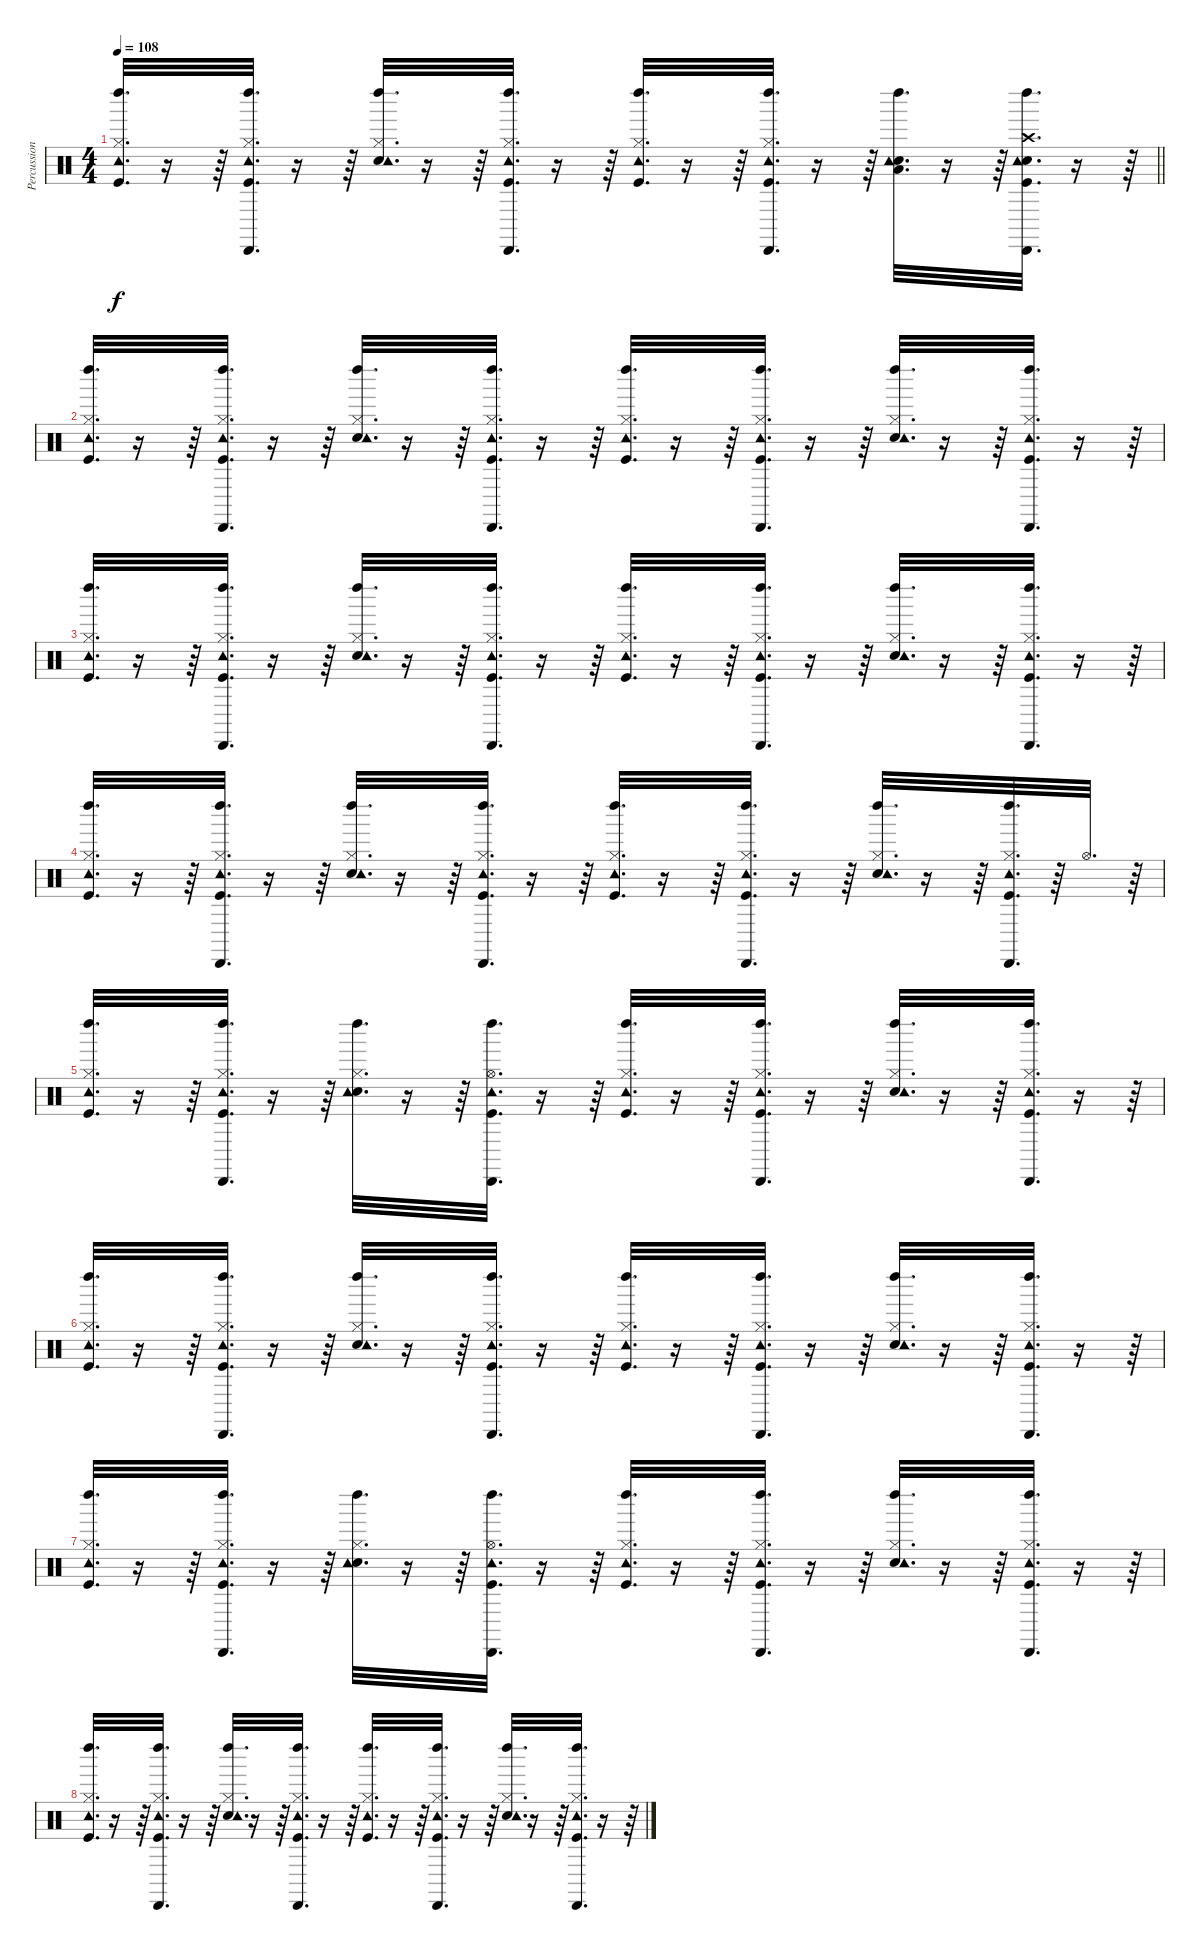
\track ("Percussions" "Percussion") {instrument percussion}
\staff {score}
\articulation defaults
\ts (4 4)
\tempo 108
\clef neutral
\barLineRight lightlight
\ks c
("Left Maraca (hit)" "Kick (hit)" "Hi-Hat (closed)" "Tambourine (hit)").32{d dy f} r.16 r.64 ("Cabasa (hit)" "Tambourine (hit)" "Kick (hit)" "Hi-Hat (closed)" "Left Maraca (hit)").32{d} r.16 r.64 ("Left Maraca (hit)" "Snare (hit) 2" "Hi-Hat (closed)" "Tambourine (hit)").32{d} r.16 r.64 ("Cabasa (hit)" "Tambourine (hit)" "Kick (hit)" "Hi-Hat (closed)" "Left Maraca (hit)").32{d} r.16 r.64 ("Left Maraca (hit)" "Kick (hit)" "Hi-Hat (closed)" "Tambourine (hit)").32{d} r.16 r.64 ("Cabasa (hit)" "Tambourine (hit)" "Kick (hit)" "Hi-Hat (closed)" "Left Maraca (hit)").32{d} r.16 r.64 ("Left Maraca (hit)" "Snare (hit) 2" "Low Floor Tom (hit)" "Tambourine (hit)").32{d} r.16 r.64 ("Cabasa (hit)" "Snare (hit) 2" "Crash high (hit)" "Kick (hit)" "Left Maraca (hit)" "Tambourine (hit)").32{d} r.16 r.64 |
("Left Maraca (hit)" "Kick (hit)" "Hi-Hat (closed)" "Tambourine (hit)").32{d} r.16 r.64 ("Cabasa (hit)" "Tambourine (hit)" "Kick (hit)" "Hi-Hat (closed)" "Left Maraca (hit)").32{d} r.16 r.64 ("Left Maraca (hit)" "Snare (hit) 2" "Hi-Hat (closed)" "Tambourine (hit)").32{d} r.16 r.64 ("Cabasa (hit)" "Tambourine (hit)" "Kick (hit)" "Hi-Hat (closed)" "Left Maraca (hit)").32{d} r.16 r.64 ("Left Maraca (hit)" "Kick (hit)" "Hi-Hat (closed)" "Tambourine (hit)").32{d} r.16 r.64 ("Cabasa (hit)" "Tambourine (hit)" "Kick (hit)" "Hi-Hat (closed)" "Left Maraca (hit)").32{d} r.16 r.64 ("Left Maraca (hit)" "Snare (hit) 2" "Hi-Hat (closed)" "Tambourine (hit)").32{d} r.16 r.64 ("Cabasa (hit)" "Tambourine (hit)" "Kick (hit)" "Hi-Hat (closed)" "Left Maraca (hit)").32{d} r.16 r.64 |
("Left Maraca (hit)" "Kick (hit)" "Hi-Hat (closed)" "Tambourine (hit)").32{d} r.16 r.64 ("Cabasa (hit)" "Tambourine (hit)" "Kick (hit)" "Hi-Hat (closed)" "Left Maraca (hit)").32{d} r.16 r.64 ("Left Maraca (hit)" "Snare (hit) 2" "Hi-Hat (closed)" "Tambourine (hit)").32{d} r.16 r.64 ("Cabasa (hit)" "Tambourine (hit)" "Kick (hit)" "Hi-Hat (closed)" "Left Maraca (hit)").32{d} r.16 r.64 ("Left Maraca (hit)" "Kick (hit)" "Hi-Hat (closed)" "Tambourine (hit)").32{d} r.16 r.64 ("Cabasa (hit)" "Tambourine (hit)" "Kick (hit)" "Hi-Hat (closed)" "Left Maraca (hit)").32{d} r.16 r.64 ("Left Maraca (hit)" "Snare (hit) 2" "Hi-Hat (closed)" "Tambourine (hit)").32{d} r.16 r.64 ("Cabasa (hit)" "Tambourine (hit)" "Kick (hit)" "Hi-Hat (closed)" "Left Maraca (hit)").32{d} r.16 r.64 |
("Left Maraca (hit)" "Kick (hit)" "Hi-Hat (closed)" "Tambourine (hit)").32{d} r.16 r.64 ("Cabasa (hit)" "Tambourine (hit)" "Kick (hit)" "Hi-Hat (closed)" "Left Maraca (hit)").32{d} r.16 r.64 ("Left Maraca (hit)" "Snare (hit) 2" "Hi-Hat (closed)" "Tambourine (hit)").32{d} r.16 r.64 ("Cabasa (hit)" "Tambourine (hit)" "Kick (hit)" "Hi-Hat (closed)" "Left Maraca (hit)").32{d} r.16 r.64 ("Left Maraca (hit)" "Kick (hit)" "Hi-Hat (closed)" "Tambourine (hit)").32{d} r.16 r.64 ("Cabasa (hit)" "Tambourine (hit)" "Kick (hit)" "Hi-Hat (closed)" "Left Maraca (hit)").32{d} r.16 r.64 ("Left Maraca (hit)" "Snare (hit) 2" "Hi-Hat (closed)" "Tambourine (hit)").32{d} r.16 r.64 ("Cabasa (hit)" "Tambourine (hit)" "Kick (hit)" "Hi-Hat (closed)" "Left Maraca (hit)").32{d} r.64 "Hi-Hat (open)".32{d} r.64 |
("Left Maraca (hit)" "Kick (hit)" "Hi-Hat (closed)" "Tambourine (hit)").32{d} r.16 r.64 ("Cabasa (hit)" "Tambourine (hit)" "Kick (hit)" "Hi-Hat (closed)" "Left Maraca (hit)").32{d} r.16 r.64 ("Left Maraca (hit)" "Snare (hit) 2" "Hi-Hat (closed)" "Tambourine (hit)").32{d} r.16 r.64 ("Cabasa (hit)" "Tambourine (hit)" "Kick (hit)" "Hi-Hat (open)" "Left Maraca (hit)").32{d} r.16 r.64 ("Left Maraca (hit)" "Kick (hit)" "Hi-Hat (closed)" "Tambourine (hit)").32{d} r.16 r.64 ("Cabasa (hit)" "Tambourine (hit)" "Kick (hit)" "Hi-Hat (closed)" "Left Maraca (hit)").32{d} r.16 r.64 ("Left Maraca (hit)" "Snare (hit) 2" "Hi-Hat (closed)" "Tambourine (hit)").32{d} r.16 r.64 ("Cabasa (hit)" "Tambourine (hit)" "Kick (hit)" "Hi-Hat (closed)" "Left Maraca (hit)").32{d} r.16 r.64 |
("Left Maraca (hit)" "Kick (hit)" "Hi-Hat (closed)" "Tambourine (hit)").32{d} r.16 r.64 ("Cabasa (hit)" "Tambourine (hit)" "Kick (hit)" "Hi-Hat (closed)" "Left Maraca (hit)").32{d} r.16 r.64 ("Left Maraca (hit)" "Snare (hit) 2" "Hi-Hat (closed)" "Tambourine (hit)").32{d} r.16 r.64 ("Cabasa (hit)" "Tambourine (hit)" "Kick (hit)" "Hi-Hat (closed)" "Left Maraca (hit)").32{d} r.16 r.64 ("Left Maraca (hit)" "Kick (hit)" "Hi-Hat (closed)" "Tambourine (hit)").32{d} r.16 r.64 ("Cabasa (hit)" "Tambourine (hit)" "Kick (hit)" "Hi-Hat (closed)" "Left Maraca (hit)").32{d} r.16 r.64 ("Left Maraca (hit)" "Snare (hit) 2" "Hi-Hat (closed)" "Tambourine (hit)").32{d} r.16 r.64 ("Cabasa (hit)" "Tambourine (hit)" "Kick (hit)" "Hi-Hat (closed)" "Left Maraca (hit)").32{d} r.16 r.64 |
("Left Maraca (hit)" "Kick (hit)" "Hi-Hat (closed)" "Tambourine (hit)").32{d} r.16 r.64 ("Cabasa (hit)" "Tambourine (hit)" "Kick (hit)" "Hi-Hat (closed)" "Left Maraca (hit)").32{d} r.16 r.64 ("Left Maraca (hit)" "Snare (hit) 2" "Hi-Hat (closed)" "Tambourine (hit)").32{d} r.16 r.64 ("Cabasa (hit)" "Tambourine (hit)" "Kick (hit)" "Hi-Hat (open)" "Left Maraca (hit)").32{d} r.16 r.64 ("Left Maraca (hit)" "Kick (hit)" "Hi-Hat (closed)" "Tambourine (hit)").32{d} r.16 r.64 ("Cabasa (hit)" "Tambourine (hit)" "Kick (hit)" "Hi-Hat (closed)" "Left Maraca (hit)").32{d} r.16 r.64 ("Left Maraca (hit)" "Snare (hit) 2" "Hi-Hat (closed)" "Tambourine (hit)").32{d} r.16 r.64 ("Cabasa (hit)" "Tambourine (hit)" "Kick (hit)" "Hi-Hat (closed)" "Left Maraca (hit)").32{d} r.16 r.64 |
("Left Maraca (hit)" "Kick (hit)" "Hi-Hat (closed)" "Tambourine (hit)").32{d} r.16 r.64 ("Cabasa (hit)" "Tambourine (hit)" "Kick (hit)" "Hi-Hat (closed)" "Left Maraca (hit)").32{d} r.16 r.64 ("Left Maraca (hit)" "Snare (hit) 2" "Hi-Hat (closed)" "Tambourine (hit)").32{d} r.16 r.64 ("Cabasa (hit)" "Tambourine (hit)" "Kick (hit)" "Hi-Hat (closed)" "Left Maraca (hit)").32{d} r.16 r.64 ("Left Maraca (hit)" "Kick (hit)" "Hi-Hat (closed)" "Tambourine (hit)").32{d} r.16 r.64 ("Cabasa (hit)" "Tambourine (hit)" "Kick (hit)" "Hi-Hat (closed)" "Left Maraca (hit)").32{d} r.16 r.64 ("Left Maraca (hit)" "Snare (hit) 2" "Hi-Hat (closed)" "Tambourine (hit)").32{d} r.16 r.64 ("Cabasa (hit)" "Tambourine (hit)" "Kick (hit)" "Hi-Hat (closed)" "Left Maraca (hit)").32{d} r.16 r.64
